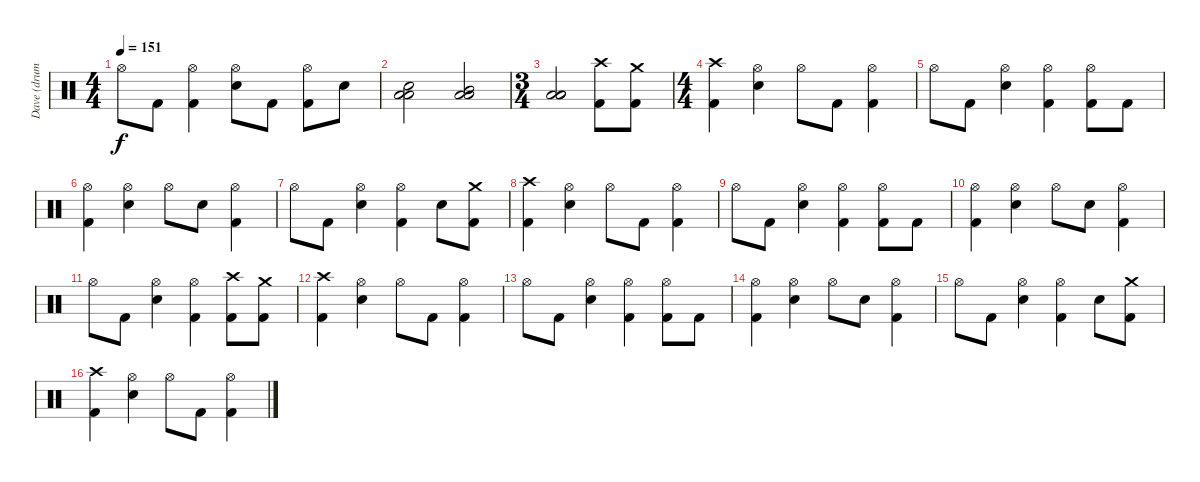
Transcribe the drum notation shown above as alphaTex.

\track ("Dave (drums)" "Dave (drum") {instrument percussion}
\staff {score}
\articulation defaults
\ts (4 4)
\tempo 151
\clef neutral
\ks c "Hi-Hat (open)".8{dy f} "Kick (hit) 2".8
("Hi-Hat (open)" "Kick (hit) 2").4 ("Hi-Hat (open)" "Electric Snare (hit)").8 "Kick (hit) 2".8 ("Hi-Hat (open)" "Kick (hit) 2").8 "Electric Snare (hit)".8 |
("Low Floor Tom (hit)" "Low Floor Tom (hit)" "Electric Snare (hit)").2 ("Low Floor Tom (hit)" "Low Floor Tom (hit)" "Mid Tom (hit)").2 |
\ts (3 4)
("Low Floor Tom (hit)" "Low Floor Tom (hit)" "Low Tom (hit)").2 ("Crash high (hit)" "Kick (hit) 2").8 ("Crash medium (hit)" "Kick (hit) 2").8 |
\ts (4 4)
("Crash high (hit)" "Kick (hit) 2").4 ("Hi-Hat (open)" "Electric Snare (hit)").4 "Hi-Hat (open)".8 "Kick (hit) 2".8 ("Hi-Hat (open)" "Kick (hit) 2").4 |
"Hi-Hat (open)".8 "Kick (hit) 2".8 ("Hi-Hat (open)" "Electric Snare (hit)").4 ("Hi-Hat (open)" "Kick (hit) 2").4 ("Hi-Hat (open)" "Kick (hit) 2").8 "Kick (hit) 2".8 |
("Hi-Hat (open)" "Kick (hit) 2").4 ("Hi-Hat (open)" "Electric Snare (hit)").4 "Hi-Hat (open)".8 "Electric Snare (hit)".8 ("Hi-Hat (open)" "Kick (hit) 2").4 |
"Hi-Hat (open)".8 "Kick (hit) 2".8 ("Hi-Hat (open)" "Electric Snare (hit)").4 ("Hi-Hat (open)" "Kick (hit) 2").4 "Electric Snare (hit)".8 ("Crash medium (hit)" "Kick (hit) 2").8 |
("Crash high (hit)" "Kick (hit) 2").4 ("Hi-Hat (open)" "Electric Snare (hit)").4 "Hi-Hat (open)".8 "Kick (hit) 2".8 ("Hi-Hat (open)" "Kick (hit) 2").4 |
"Hi-Hat (open)".8 "Kick (hit) 2".8 ("Hi-Hat (open)" "Electric Snare (hit)").4 ("Hi-Hat (open)" "Kick (hit) 2").4 ("Hi-Hat (open)" "Kick (hit) 2").8 "Kick (hit) 2".8 |
("Hi-Hat (open)" "Kick (hit) 2").4 ("Hi-Hat (open)" "Electric Snare (hit)").4 "Hi-Hat (open)".8 "Electric Snare (hit)".8 ("Hi-Hat (open)" "Kick (hit) 2").4 |
"Hi-Hat (open)".8 "Kick (hit) 2".8 ("Hi-Hat (open)" "Electric Snare (hit)").4 ("Hi-Hat (open)" "Kick (hit) 2").4 ("Crash high (hit)" "Kick (hit) 2").8 ("Crash medium (hit)" "Kick (hit) 2").8 |
("Crash high (hit)" "Kick (hit) 2").4 ("Hi-Hat (open)" "Electric Snare (hit)").4 "Hi-Hat (open)".8 "Kick (hit) 2".8 ("Hi-Hat (open)" "Kick (hit) 2").4 |
"Hi-Hat (open)".8 "Kick (hit) 2".8 ("Hi-Hat (open)" "Electric Snare (hit)").4 ("Hi-Hat (open)" "Kick (hit) 2").4 ("Hi-Hat (open)" "Kick (hit) 2").8 "Kick (hit) 2".8 |
("Hi-Hat (open)" "Kick (hit) 2").4 ("Hi-Hat (open)" "Electric Snare (hit)").4 "Hi-Hat (open)".8 "Electric Snare (hit)".8 ("Hi-Hat (open)" "Kick (hit) 2").4 |
"Hi-Hat (open)".8 "Kick (hit) 2".8 ("Hi-Hat (open)" "Electric Snare (hit)").4 ("Hi-Hat (open)" "Kick (hit) 2").4 "Electric Snare (hit)".8 ("Crash medium (hit)" "Kick (hit) 2").8 |
("Crash high (hit)" "Kick (hit) 2").4 ("Hi-Hat (open)" "Electric Snare (hit)").4 "Hi-Hat (open)".8 "Kick (hit) 2".8 ("Hi-Hat (open)" "Kick (hit) 2").4
